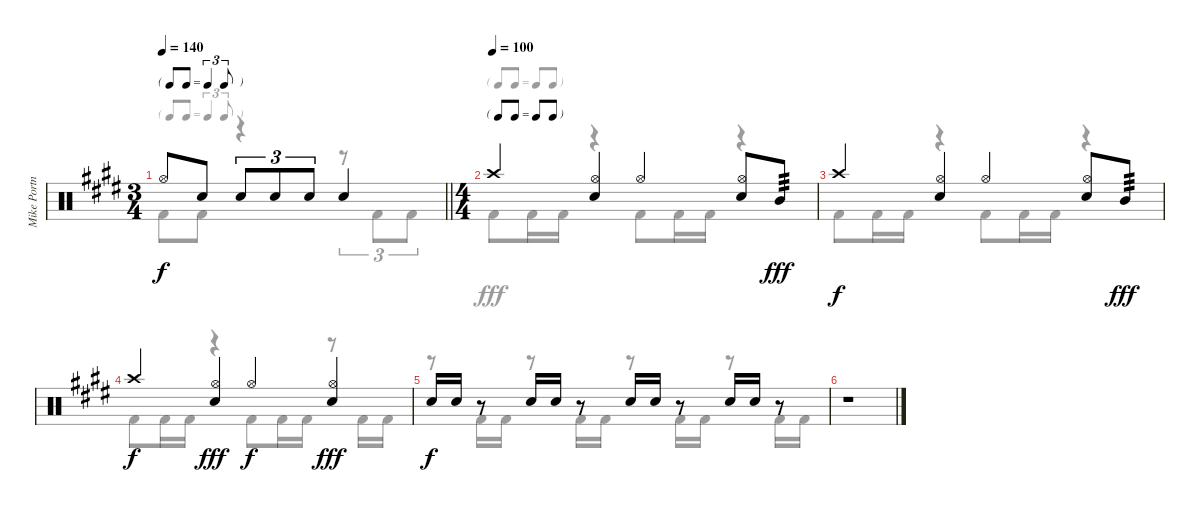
\track ("Mike Portnoy" "Mike Portn") {instrument percussion}
\staff {score}
\articulation defaults
\voice
\ts (3 4)
\tf triplet8th
\tempo 140
\clef neutral
\barLineRight lightlight
\ks e "Hi-Hat (open)".8{dy f} "Snare (hit) 2".8 "Snare (hit) 2".8{tu (3 2)} "Snare (hit) 2".8{tu (3 2)} "Snare (hit) 2".8{tu (3 2)} "Snare (hit) 2".4
|
\ts (4 4)
\tf none
\tempo (100)
"Crash high (hit)".4 ("Hi-Hat (open)" "Snare (hit) 2").4 "Hi-Hat (open)".4 ("Hi-Hat (open)" "Snare (hit) 2").8 "Mid Tom (hit)".8{tp 3 dy fff} |
"Crash high (hit)".4{dy f} ("Hi-Hat (open)" "Snare (hit) 2").4 "Hi-Hat (open)".4 ("Hi-Hat (open)" "Snare (hit) 2").8 "Mid Tom (hit)".8{tp 3 dy fff} |
"Crash high (hit)".4{dy f} ("Hi-Hat (open)" "Snare (hit) 2").4{dy fff} "Hi-Hat (open)".4{dy f} ("Hi-Hat (open)" "Snare (hit) 2").4{dy fff} |
"Snare (hit) 2".16{dy f} "Snare (hit) 2".16 r.8 "Snare (hit) 2".16 "Snare (hit) 2".16 r.8 "Snare (hit) 2".16 "Snare (hit) 2".16 r.8 "Snare (hit) 2".16 "Snare (hit) 2".16 r.8 |
r.1
\voice
\clef neutral
\ottava regular
\simile none
\barLineRight lightlight
\ks e "Kick (hit) 2".8{dy f} "Kick (hit) 2".8
r.4 r.8{tu (3 2)} "Kick (hit) 2".8{tu (3 2)} "Kick (hit) 2".8{tu (3 2)} |
"Kick (hit) 2".8{dy fff} "Kick (hit) 2".16 "Kick (hit) 2".16 r.4 "Kick (hit) 2".8 "Kick (hit) 2".16 "Kick (hit) 2".16 r.4 |
"Kick (hit) 2".8 "Kick (hit) 2".16 "Kick (hit) 2".16 r.4 "Kick (hit) 2".8 "Kick (hit) 2".16 "Kick (hit) 2".16 r.4 |
"Kick (hit) 2".8 "Kick (hit) 2".16 "Kick (hit) 2".16 r.4 "Kick (hit) 2".8 "Kick (hit) 2".16 "Kick (hit) 2".16 r.8 "Kick (hit) 2".16 "Kick (hit) 2".16 |
r.8 "Kick (hit) 2".16 "Kick (hit) 2".16 r.8 "Kick (hit) 2".16 "Kick (hit) 2".16 r.8 "Kick (hit) 2".16 "Kick (hit) 2".16 r.8 "Kick (hit) 2".16 "Kick (hit) 2".16 |
